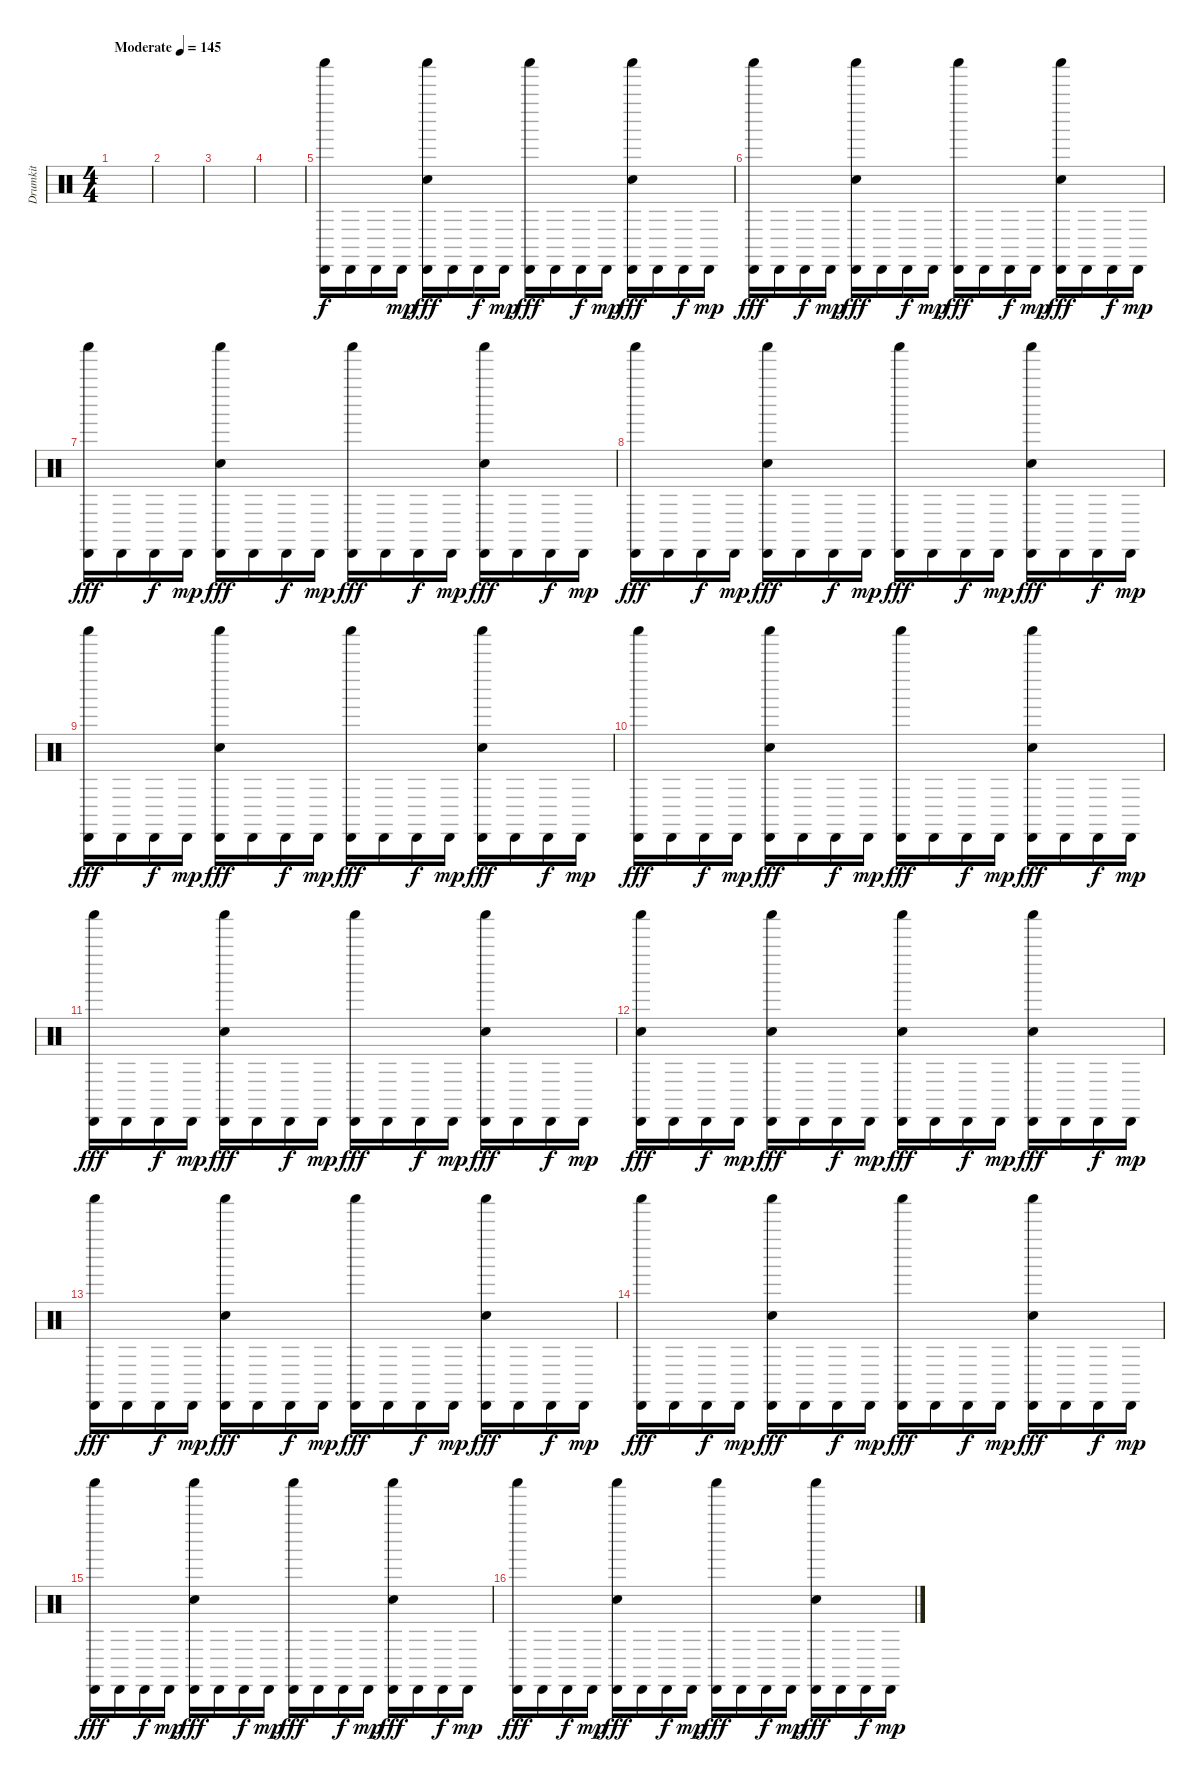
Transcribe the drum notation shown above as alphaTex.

\track ("Drumkit" "Drumkit") {instrument percussion}
\staff {score}
\articulation defaults
\ts (4 4)
\tempo (145 "Moderate")
\clef neutral
\ks c
|
|
|
|
("Shaker (hit)" "Cabasa (hit)").16 "Cabasa (hit)".16 "Cabasa (hit)".16{dy f} "Cabasa (hit)".16{dy mp} ("Shaker (hit)" "Snare (hit) 2" "Cabasa (hit)").16{dy fff} "Cabasa (hit)".16 "Cabasa (hit)".16{dy f} "Cabasa (hit)".16{dy mp} ("Shaker (hit)" "Cabasa (hit)").16{dy fff} "Cabasa (hit)".16 "Cabasa (hit)".16{dy f} "Cabasa (hit)".16{dy mp} ("Shaker (hit)" "Snare (hit) 2" "Cabasa (hit)").16{dy fff} "Cabasa (hit)".16 "Cabasa (hit)".16{dy f} "Cabasa (hit)".16{dy mp} |
("Shaker (hit)" "Cabasa (hit)").16{dy fff} "Cabasa (hit)".16 "Cabasa (hit)".16{dy f} "Cabasa (hit)".16{dy mp} ("Shaker (hit)" "Snare (hit) 2" "Cabasa (hit)").16{dy fff} "Cabasa (hit)".16 "Cabasa (hit)".16{dy f} "Cabasa (hit)".16{dy mp} ("Shaker (hit)" "Cabasa (hit)").16{dy fff} "Cabasa (hit)".16 "Cabasa (hit)".16{dy f} "Cabasa (hit)".16{dy mp} ("Shaker (hit)" "Snare (hit) 2" "Cabasa (hit)").16{dy fff} "Cabasa (hit)".16 "Cabasa (hit)".16{dy f} "Cabasa (hit)".16{dy mp} |
("Shaker (hit)" "Cabasa (hit)").16{dy fff} "Cabasa (hit)".16 "Cabasa (hit)".16{dy f} "Cabasa (hit)".16{dy mp} ("Shaker (hit)" "Snare (hit) 2" "Cabasa (hit)").16{dy fff} "Cabasa (hit)".16 "Cabasa (hit)".16{dy f} "Cabasa (hit)".16{dy mp} ("Shaker (hit)" "Cabasa (hit)").16{dy fff} "Cabasa (hit)".16 "Cabasa (hit)".16{dy f} "Cabasa (hit)".16{dy mp} ("Shaker (hit)" "Snare (hit) 2" "Cabasa (hit)").16{dy fff} "Cabasa (hit)".16 "Cabasa (hit)".16{dy f} "Cabasa (hit)".16{dy mp} |
("Shaker (hit)" "Cabasa (hit)").16{dy fff} "Cabasa (hit)".16 "Cabasa (hit)".16{dy f} "Cabasa (hit)".16{dy mp} ("Shaker (hit)" "Snare (hit) 2" "Cabasa (hit)").16{dy fff} "Cabasa (hit)".16 "Cabasa (hit)".16{dy f} "Cabasa (hit)".16{dy mp} ("Shaker (hit)" "Cabasa (hit)").16{dy fff} "Cabasa (hit)".16 "Cabasa (hit)".16{dy f} "Cabasa (hit)".16{dy mp} ("Shaker (hit)" "Snare (hit) 2" "Cabasa (hit)").16{dy fff} "Cabasa (hit)".16 "Cabasa (hit)".16{dy f} "Cabasa (hit)".16{dy mp} |
("Shaker (hit)" "Cabasa (hit)").16{dy fff} "Cabasa (hit)".16 "Cabasa (hit)".16{dy f} "Cabasa (hit)".16{dy mp} ("Shaker (hit)" "Snare (hit) 2" "Cabasa (hit)").16{dy fff} "Cabasa (hit)".16 "Cabasa (hit)".16{dy f} "Cabasa (hit)".16{dy mp} ("Shaker (hit)" "Cabasa (hit)").16{dy fff} "Cabasa (hit)".16 "Cabasa (hit)".16{dy f} "Cabasa (hit)".16{dy mp} ("Shaker (hit)" "Snare (hit) 2" "Cabasa (hit)").16{dy fff} "Cabasa (hit)".16 "Cabasa (hit)".16{dy f} "Cabasa (hit)".16{dy mp} |
("Shaker (hit)" "Cabasa (hit)").16{dy fff} "Cabasa (hit)".16 "Cabasa (hit)".16{dy f} "Cabasa (hit)".16{dy mp} ("Shaker (hit)" "Snare (hit) 2" "Cabasa (hit)").16{dy fff} "Cabasa (hit)".16 "Cabasa (hit)".16{dy f} "Cabasa (hit)".16{dy mp} ("Shaker (hit)" "Cabasa (hit)").16{dy fff} "Cabasa (hit)".16 "Cabasa (hit)".16{dy f} "Cabasa (hit)".16{dy mp} ("Shaker (hit)" "Snare (hit) 2" "Cabasa (hit)").16{dy fff} "Cabasa (hit)".16 "Cabasa (hit)".16{dy f} "Cabasa (hit)".16{dy mp} |
("Shaker (hit)" "Cabasa (hit)").16{dy fff} "Cabasa (hit)".16 "Cabasa (hit)".16{dy f} "Cabasa (hit)".16{dy mp} ("Shaker (hit)" "Snare (hit) 2" "Cabasa (hit)").16{dy fff} "Cabasa (hit)".16 "Cabasa (hit)".16{dy f} "Cabasa (hit)".16{dy mp} ("Shaker (hit)" "Cabasa (hit)").16{dy fff} "Cabasa (hit)".16 "Cabasa (hit)".16{dy f} "Cabasa (hit)".16{dy mp} ("Shaker (hit)" "Snare (hit) 2" "Cabasa (hit)").16{dy fff} "Cabasa (hit)".16 "Cabasa (hit)".16{dy f} "Cabasa (hit)".16{dy mp} |
("Shaker (hit)" "Snare (hit) 2" "Cabasa (hit)").16{dy fff} "Cabasa (hit)".16 "Cabasa (hit)".16{dy f} "Cabasa (hit)".16{dy mp} ("Shaker (hit)" "Snare (hit) 2" "Cabasa (hit)").16{dy fff} "Cabasa (hit)".16 "Cabasa (hit)".16{dy f} "Cabasa (hit)".16{dy mp} ("Shaker (hit)" "Snare (hit) 2" "Cabasa (hit)").16{dy fff} "Cabasa (hit)".16 "Cabasa (hit)".16{dy f} "Cabasa (hit)".16{dy mp} ("Shaker (hit)" "Snare (hit) 2" "Cabasa (hit)").16{dy fff} "Cabasa (hit)".16 "Cabasa (hit)".16{dy f} "Cabasa (hit)".16{dy mp} |
("Shaker (hit)" "Cabasa (hit)").16{dy fff} "Cabasa (hit)".16 "Cabasa (hit)".16{dy f} "Cabasa (hit)".16{dy mp} ("Shaker (hit)" "Snare (hit) 2" "Cabasa (hit)").16{dy fff} "Cabasa (hit)".16 "Cabasa (hit)".16{dy f} "Cabasa (hit)".16{dy mp} ("Shaker (hit)" "Cabasa (hit)").16{dy fff} "Cabasa (hit)".16 "Cabasa (hit)".16{dy f} "Cabasa (hit)".16{dy mp} ("Shaker (hit)" "Snare (hit) 2" "Cabasa (hit)").16{dy fff} "Cabasa (hit)".16 "Cabasa (hit)".16{dy f} "Cabasa (hit)".16{dy mp} |
("Shaker (hit)" "Cabasa (hit)").16{dy fff} "Cabasa (hit)".16 "Cabasa (hit)".16{dy f} "Cabasa (hit)".16{dy mp} ("Shaker (hit)" "Snare (hit) 2" "Cabasa (hit)").16{dy fff} "Cabasa (hit)".16 "Cabasa (hit)".16{dy f} "Cabasa (hit)".16{dy mp} ("Shaker (hit)" "Cabasa (hit)").16{dy fff} "Cabasa (hit)".16 "Cabasa (hit)".16{dy f} "Cabasa (hit)".16{dy mp} ("Shaker (hit)" "Snare (hit) 2" "Cabasa (hit)").16{dy fff} "Cabasa (hit)".16 "Cabasa (hit)".16{dy f} "Cabasa (hit)".16{dy mp} |
("Shaker (hit)" "Cabasa (hit)").16{dy fff} "Cabasa (hit)".16 "Cabasa (hit)".16{dy f} "Cabasa (hit)".16{dy mp} ("Shaker (hit)" "Snare (hit) 2" "Cabasa (hit)").16{dy fff} "Cabasa (hit)".16 "Cabasa (hit)".16{dy f} "Cabasa (hit)".16{dy mp} ("Shaker (hit)" "Cabasa (hit)").16{dy fff} "Cabasa (hit)".16 "Cabasa (hit)".16{dy f} "Cabasa (hit)".16{dy mp} ("Shaker (hit)" "Snare (hit) 2" "Cabasa (hit)").16{dy fff} "Cabasa (hit)".16 "Cabasa (hit)".16{dy f} "Cabasa (hit)".16{dy mp} |
("Shaker (hit)" "Cabasa (hit)").16{dy fff} "Cabasa (hit)".16 "Cabasa (hit)".16{dy f} "Cabasa (hit)".16{dy mp} ("Shaker (hit)" "Snare (hit) 2" "Cabasa (hit)").16{dy fff} "Cabasa (hit)".16 "Cabasa (hit)".16{dy f} "Cabasa (hit)".16{dy mp} ("Shaker (hit)" "Cabasa (hit)").16{dy fff} "Cabasa (hit)".16 "Cabasa (hit)".16{dy f} "Cabasa (hit)".16{dy mp} ("Shaker (hit)" "Snare (hit) 2" "Cabasa (hit)").16{dy fff} "Cabasa (hit)".16 "Cabasa (hit)".16{dy f} "Cabasa (hit)".16{dy mp}
